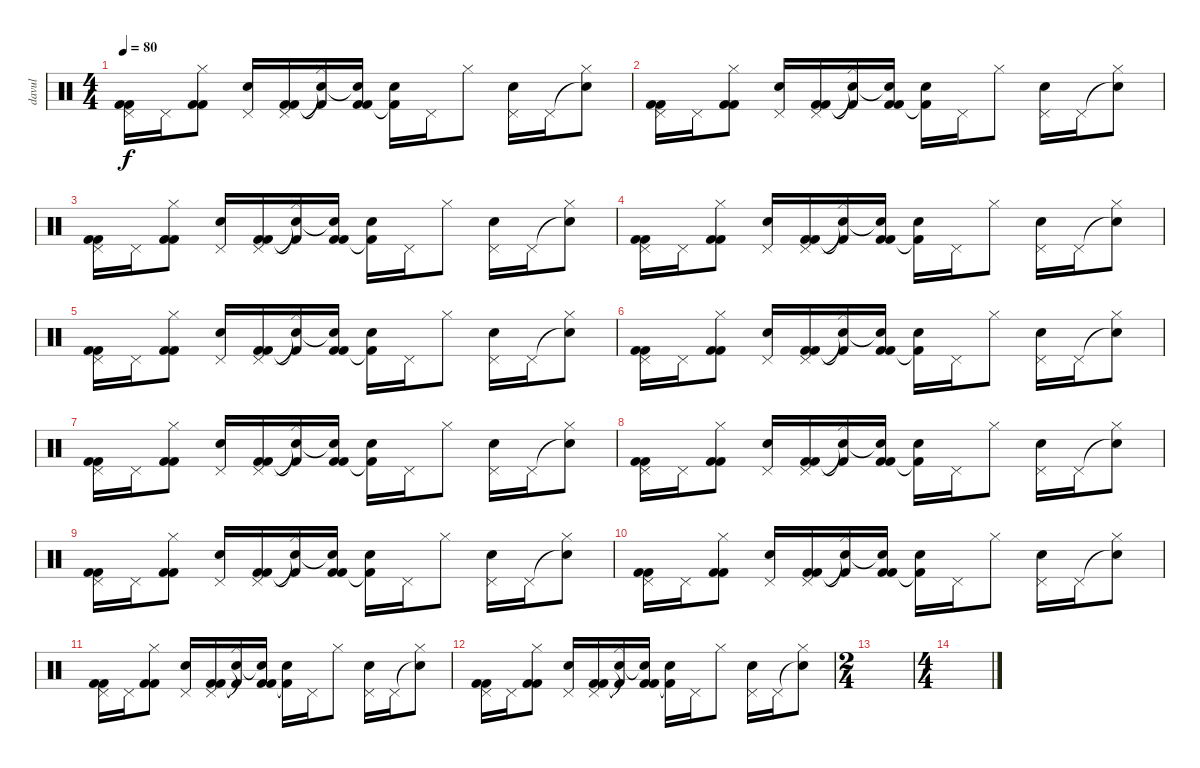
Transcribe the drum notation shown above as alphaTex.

\track ("davul" "davul") {instrument percussion}
\staff {score}
\articulation defaults
\ts (4 4)
\tempo 80
\clef neutral
\ks c
("Pedal Hi-Hat (hit)" "Kick (hit) 2" "Kick (hit) 2").16{dy f} "Pedal Hi-Hat (hit)".16 ("Hi-Hat (closed)" "Kick (hit) 2" "Kick (hit) 2").8 ("Electric Snare (hit)" "Pedal Hi-Hat (hit)").16 ("Pedal Hi-Hat (hit)" "Kick (hit) 2" "Kick (hit) 2").16 ("Snare (hit)"{t} "Hi-Hat (closed)" "Kick (hit) 2"{t}).16 ("Snare (hit)"{t} "Kick (hit) 2" "Kick (hit) 2").16 ("Snare (hit)" "Kick (hit) 2"{t}).16 "Pedal Hi-Hat (hit)".16 "Hi-Hat (closed)".8 ("Electric Snare (hit)" "Pedal Hi-Hat (hit)").16 "Pedal Hi-Hat (hit)".16 ("Snare (hit)"{t} "Hi-Hat (closed)").8 |
("Pedal Hi-Hat (hit)" "Kick (hit) 2" "Kick (hit) 2").16 "Pedal Hi-Hat (hit)".16 ("Hi-Hat (closed)" "Kick (hit) 2" "Kick (hit) 2").8 ("Electric Snare (hit)" "Pedal Hi-Hat (hit)").16 ("Pedal Hi-Hat (hit)" "Kick (hit) 2" "Kick (hit) 2").16 ("Snare (hit)"{t} "Hi-Hat (closed)" "Kick (hit) 2"{t}).16 ("Snare (hit)"{t} "Kick (hit) 2" "Kick (hit) 2").16 ("Snare (hit)" "Kick (hit) 2"{t}).16 "Pedal Hi-Hat (hit)".16 "Hi-Hat (closed)".8 ("Electric Snare (hit)" "Pedal Hi-Hat (hit)").16 "Pedal Hi-Hat (hit)".16 ("Snare (hit)"{t} "Hi-Hat (closed)").8 |
("Pedal Hi-Hat (hit)" "Kick (hit) 2" "Kick (hit) 2").16 "Pedal Hi-Hat (hit)".16 ("Hi-Hat (closed)" "Kick (hit) 2" "Kick (hit) 2").8 ("Electric Snare (hit)" "Pedal Hi-Hat (hit)").16 ("Pedal Hi-Hat (hit)" "Kick (hit) 2" "Kick (hit) 2").16 ("Snare (hit)"{t} "Hi-Hat (closed)" "Kick (hit) 2"{t}).16 ("Snare (hit)"{t} "Kick (hit) 2" "Kick (hit) 2").16 ("Snare (hit)" "Kick (hit) 2"{t}).16 "Pedal Hi-Hat (hit)".16 "Hi-Hat (closed)".8 ("Electric Snare (hit)" "Pedal Hi-Hat (hit)").16 "Pedal Hi-Hat (hit)".16 ("Snare (hit)"{t} "Hi-Hat (closed)").8 |
("Pedal Hi-Hat (hit)" "Kick (hit) 2" "Kick (hit) 2").16 "Pedal Hi-Hat (hit)".16 ("Hi-Hat (closed)" "Kick (hit) 2" "Kick (hit) 2").8 ("Electric Snare (hit)" "Pedal Hi-Hat (hit)").16 ("Pedal Hi-Hat (hit)" "Kick (hit) 2" "Kick (hit) 2").16 ("Snare (hit)"{t} "Hi-Hat (closed)" "Kick (hit) 2"{t}).16 ("Snare (hit)"{t} "Kick (hit) 2" "Kick (hit) 2").16 ("Snare (hit)" "Kick (hit) 2"{t}).16 "Pedal Hi-Hat (hit)".16 "Hi-Hat (closed)".8 ("Electric Snare (hit)" "Pedal Hi-Hat (hit)").16 "Pedal Hi-Hat (hit)".16 ("Snare (hit)"{t} "Hi-Hat (closed)").8 |
("Pedal Hi-Hat (hit)" "Kick (hit) 2" "Kick (hit) 2").16 "Pedal Hi-Hat (hit)".16 ("Hi-Hat (closed)" "Kick (hit) 2" "Kick (hit) 2").8 ("Electric Snare (hit)" "Pedal Hi-Hat (hit)").16 ("Pedal Hi-Hat (hit)" "Kick (hit) 2" "Kick (hit) 2").16 ("Snare (hit)"{t} "Hi-Hat (closed)" "Kick (hit) 2"{t}).16 ("Snare (hit)"{t} "Kick (hit) 2" "Kick (hit) 2").16 ("Snare (hit)" "Kick (hit) 2"{t}).16 "Pedal Hi-Hat (hit)".16 "Hi-Hat (closed)".8 ("Electric Snare (hit)" "Pedal Hi-Hat (hit)").16 "Pedal Hi-Hat (hit)".16 ("Snare (hit)"{t} "Hi-Hat (closed)").8 |
("Pedal Hi-Hat (hit)" "Kick (hit) 2" "Kick (hit) 2").16 "Pedal Hi-Hat (hit)".16 ("Hi-Hat (closed)" "Kick (hit) 2" "Kick (hit) 2").8 ("Electric Snare (hit)" "Pedal Hi-Hat (hit)").16 ("Pedal Hi-Hat (hit)" "Kick (hit) 2" "Kick (hit) 2").16 ("Snare (hit)"{t} "Hi-Hat (closed)" "Kick (hit) 2"{t}).16 ("Snare (hit)"{t} "Kick (hit) 2" "Kick (hit) 2").16 ("Snare (hit)" "Kick (hit) 2"{t}).16 "Pedal Hi-Hat (hit)".16 "Hi-Hat (closed)".8 ("Electric Snare (hit)" "Pedal Hi-Hat (hit)").16 "Pedal Hi-Hat (hit)".16 ("Snare (hit)"{t} "Hi-Hat (closed)").8 |
("Pedal Hi-Hat (hit)" "Kick (hit) 2" "Kick (hit) 2").16 "Pedal Hi-Hat (hit)".16 ("Hi-Hat (closed)" "Kick (hit) 2" "Kick (hit) 2").8 ("Electric Snare (hit)" "Pedal Hi-Hat (hit)").16 ("Pedal Hi-Hat (hit)" "Kick (hit) 2" "Kick (hit) 2").16 ("Snare (hit)"{t} "Hi-Hat (closed)" "Kick (hit) 2"{t}).16 ("Snare (hit)"{t} "Kick (hit) 2" "Kick (hit) 2").16 ("Snare (hit)" "Kick (hit) 2"{t}).16 "Pedal Hi-Hat (hit)".16 "Hi-Hat (closed)".8 ("Electric Snare (hit)" "Pedal Hi-Hat (hit)").16 "Pedal Hi-Hat (hit)".16 ("Snare (hit)"{t} "Hi-Hat (closed)").8 |
("Pedal Hi-Hat (hit)" "Kick (hit) 2" "Kick (hit) 2").16 "Pedal Hi-Hat (hit)".16 ("Hi-Hat (closed)" "Kick (hit) 2" "Kick (hit) 2").8 ("Electric Snare (hit)" "Pedal Hi-Hat (hit)").16 ("Pedal Hi-Hat (hit)" "Kick (hit) 2" "Kick (hit) 2").16 ("Snare (hit)"{t} "Hi-Hat (closed)" "Kick (hit) 2"{t}).16 ("Snare (hit)"{t} "Kick (hit) 2" "Kick (hit) 2").16 ("Snare (hit)" "Kick (hit) 2"{t}).16 "Pedal Hi-Hat (hit)".16 "Hi-Hat (closed)".8 ("Electric Snare (hit)" "Pedal Hi-Hat (hit)").16 "Pedal Hi-Hat (hit)".16 ("Snare (hit)"{t} "Hi-Hat (closed)").8 |
("Pedal Hi-Hat (hit)" "Kick (hit) 2" "Kick (hit) 2").16 "Pedal Hi-Hat (hit)".16 ("Hi-Hat (closed)" "Kick (hit) 2" "Kick (hit) 2").8 ("Electric Snare (hit)" "Pedal Hi-Hat (hit)").16 ("Pedal Hi-Hat (hit)" "Kick (hit) 2" "Kick (hit) 2").16 ("Snare (hit)"{t} "Hi-Hat (closed)" "Kick (hit) 2"{t}).16 ("Snare (hit)"{t} "Kick (hit) 2" "Kick (hit) 2").16 ("Snare (hit)" "Kick (hit) 2"{t}).16 "Pedal Hi-Hat (hit)".16 "Hi-Hat (closed)".8 ("Electric Snare (hit)" "Pedal Hi-Hat (hit)").16 "Pedal Hi-Hat (hit)".16 ("Snare (hit)"{t} "Hi-Hat (closed)").8 |
("Pedal Hi-Hat (hit)" "Kick (hit) 2" "Kick (hit) 2").16 "Pedal Hi-Hat (hit)".16 ("Hi-Hat (closed)" "Kick (hit) 2" "Kick (hit) 2").8 ("Electric Snare (hit)" "Pedal Hi-Hat (hit)").16 ("Pedal Hi-Hat (hit)" "Kick (hit) 2" "Kick (hit) 2").16 ("Snare (hit)"{t} "Hi-Hat (closed)" "Kick (hit) 2"{t}).16 ("Snare (hit)"{t} "Kick (hit) 2" "Kick (hit) 2").16 ("Snare (hit)" "Kick (hit) 2"{t}).16 "Pedal Hi-Hat (hit)".16 "Hi-Hat (closed)".8 ("Electric Snare (hit)" "Pedal Hi-Hat (hit)").16 "Pedal Hi-Hat (hit)".16 ("Snare (hit)"{t} "Hi-Hat (closed)").8 |
("Pedal Hi-Hat (hit)" "Kick (hit) 2" "Kick (hit) 2").16 "Pedal Hi-Hat (hit)".16 ("Hi-Hat (closed)" "Kick (hit) 2" "Kick (hit) 2").8 ("Electric Snare (hit)" "Pedal Hi-Hat (hit)").16 ("Pedal Hi-Hat (hit)" "Kick (hit) 2" "Kick (hit) 2").16 ("Snare (hit)"{t} "Hi-Hat (closed)" "Kick (hit) 2"{t}).16 ("Snare (hit)"{t} "Kick (hit) 2" "Kick (hit) 2").16 ("Snare (hit)" "Kick (hit) 2"{t}).16 "Pedal Hi-Hat (hit)".16 "Hi-Hat (closed)".8 ("Electric Snare (hit)" "Pedal Hi-Hat (hit)").16 "Pedal Hi-Hat (hit)".16 ("Snare (hit)"{t} "Hi-Hat (closed)").8 |
("Pedal Hi-Hat (hit)" "Kick (hit) 2" "Kick (hit) 2").16 "Pedal Hi-Hat (hit)".16 ("Hi-Hat (closed)" "Kick (hit) 2" "Kick (hit) 2").8 ("Electric Snare (hit)" "Pedal Hi-Hat (hit)").16 ("Pedal Hi-Hat (hit)" "Kick (hit) 2" "Kick (hit) 2").16 ("Snare (hit)"{t} "Hi-Hat (closed)" "Kick (hit) 2"{t}).16 ("Snare (hit)"{t} "Kick (hit) 2" "Kick (hit) 2").16 ("Snare (hit)" "Kick (hit) 2"{t}).16 "Pedal Hi-Hat (hit)".16 "Hi-Hat (closed)".8 ("Electric Snare (hit)" "Pedal Hi-Hat (hit)").16 "Pedal Hi-Hat (hit)".16 ("Snare (hit)"{t} "Hi-Hat (closed)").8 |
\ts (2 4)
|
\ts (4 4)
